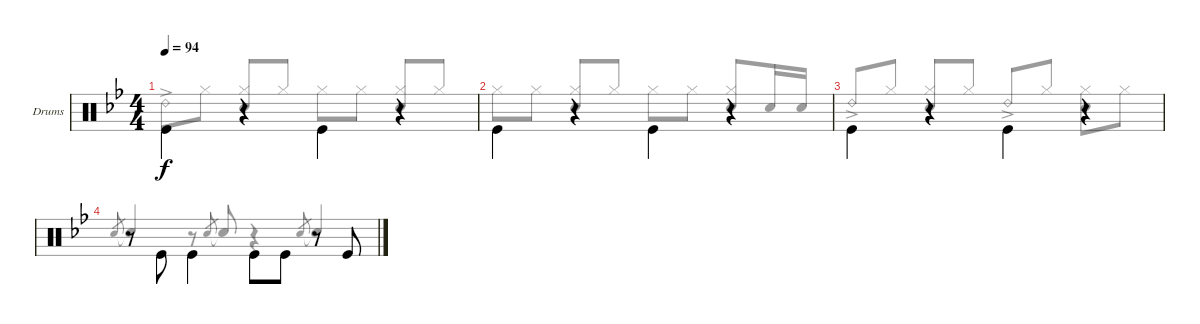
\bracketExtendMode groupsimilarinstruments
\firstSystemTrackNameOrientation horizontal
\otherSystemsTrackNameOrientation horizontal
\track ("Drum" "Drums") {instrument percussion}
\staff {score}
\articulation defaults
\voice
\ts (4 4)
\tempo 94
\clef neutral
\scale
1.04918
\ks bb "Kick (hit)".4{dy f beam invert}
r.4{beam invert} "Kick (hit)".4{beam invert} r.4 |
\scale
0.95082 "Kick (hit)".4{beam invert} r.4{beam invert} "Kick (hit)".4{beam invert} r.4 |
\scale
1.04918 "Kick (hit)".4{beam invert} r.4{beam invert} "Kick (hit)".4{beam invert} r.4 |
\scale
0.95082 r.8 "Kick (hit)".8{beam invert} "Kick (hit)".4{beam invert} "Kick (hit)".8{beam invert} "Kick (hit)".8 r.8 "Kick (hit)".8
\voice
\clef neutral
\ottava regular
\simile none
\scale
1.04918
\ks bb "Ride (bell) 2"{ac}.8{dy f} "Hi-Hat (closed)".8
("Hi-Hat (closed)" "Snare (hit) 2").8 "Hi-Hat (closed)".8{beam invert} "Hi-Hat (closed)".8 "Hi-Hat (closed)".8 ("Hi-Hat (closed)" "Snare (hit) 2").8 "Hi-Hat (closed)".8{beam invert} |
\scale
0.95082 "Hi-Hat (closed)".8 "Hi-Hat (closed)".8 ("Hi-Hat (closed)" "Snare (hit) 2").8 "Hi-Hat (closed)".8{beam invert} "Hi-Hat (closed)".8 "Hi-Hat (closed)".8 ("Hi-Hat (closed)" "Snare (hit) 2").8 "Snare (hit) 2".16{beam invert} "Snare (hit) 2".16 |
\scale
1.04918 "Ride (bell) 2"{ac}.8{beam invert} "Hi-Hat (closed)".8 ("Hi-Hat (closed)" "Snare (hit) 2").8 "Hi-Hat (closed)".8 "Ride (bell) 2"{ac}.8{beam invert} "Hi-Hat (closed)".8 ("Hi-Hat (closed)" "Snare (hit) 2").8 "Hi-Hat (closed)".8 |
\scale
0.95082 "Snare (hit) 2".8{gr beam invert} "Snare (hit) 2"{t}.4{beam invert} r.8 "Snare (hit) 2".8{gr beam invert} "Snare (hit) 2"{t}.8{beam invert} r.4 "Snare (hit) 2".8{gr beam invert} "Snare (hit) 2"{t}.4{beam invert}
